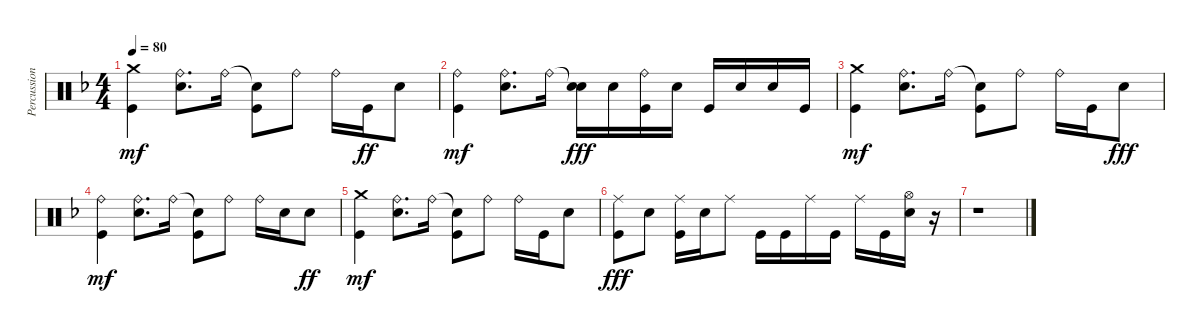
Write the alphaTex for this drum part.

\track ("Percussion" "Percussion") {instrument percussion}
\staff {score}
\articulation defaults
\ts (4 4)
\tempo 80
\clef neutral
\ks f
("Crash medium (hit)" "Kick (hit)").4{dy mf} ("Ride (bell)" "Electric Snare (hit)").8{d} "Ride (bell)".16 ("Snare (hit)"{t} "Kick (hit)").8 "Ride (bell)".8 "Ride (bell)".16 "Kick (hit)".16{dy ff} "Electric Snare (hit)".8 |
("Ride (bell)" "Kick (hit)").4{dy mf} ("Ride (bell)" "Electric Snare (hit)").8{d} "Ride (bell)".16 ("Snare (hit)"{t} "Electric Snare (hit)").16{dy fff} "Electric Snare (hit)".16 ("Ride (bell)" "Kick (hit)").16 "Electric Snare (hit)".16 "Kick (hit)".16 "Electric Snare (hit)".16 "Electric Snare (hit)".16 "Kick (hit)".16 |
("Crash medium (hit)" "Kick (hit)").4{dy mf} ("Ride (bell)" "Electric Snare (hit)").8{d} "Ride (bell)".16 ("Snare (hit)"{t} "Kick (hit)").8 "Ride (bell)".8 "Ride (bell)".16 "Kick (hit)".16 "Electric Snare (hit)".8{dy fff} |
("Ride (bell)" "Kick (hit)").4{dy mf} ("Ride (bell)" "Electric Snare (hit)").8{d} "Ride (bell)".16 ("Snare (hit)"{t} "Kick (hit)").8 "Ride (bell)".8 "Ride (bell)".16 "Electric Snare (hit)".16 "Electric Snare (hit)".8{dy ff} |
("Crash medium (hit)" "Kick (hit)").4{dy mf} ("Ride (bell)" "Electric Snare (hit)").8{d} "Ride (bell)".16 ("Snare (hit)"{t} "Kick (hit)").8 "Ride (bell)".8 "Ride (bell)".16 "Kick (hit)".16 "Electric Snare (hit)".8 |
("Ride (middle)" "Kick (hit)").8{dy fff} "Electric Snare (hit)".8 ("Ride (middle)" "Kick (hit)").16 "Electric Snare (hit)".16 "Ride (middle)".8 "Kick (hit)".16 "Kick (hit)".16 "Ride (middle)".16 "Kick (hit)".16 "Ride (middle)".16 "Kick (hit)".16 ("Hi-Hat (open)" "Electric Snare (hit)").16 r.16 |
r.1
